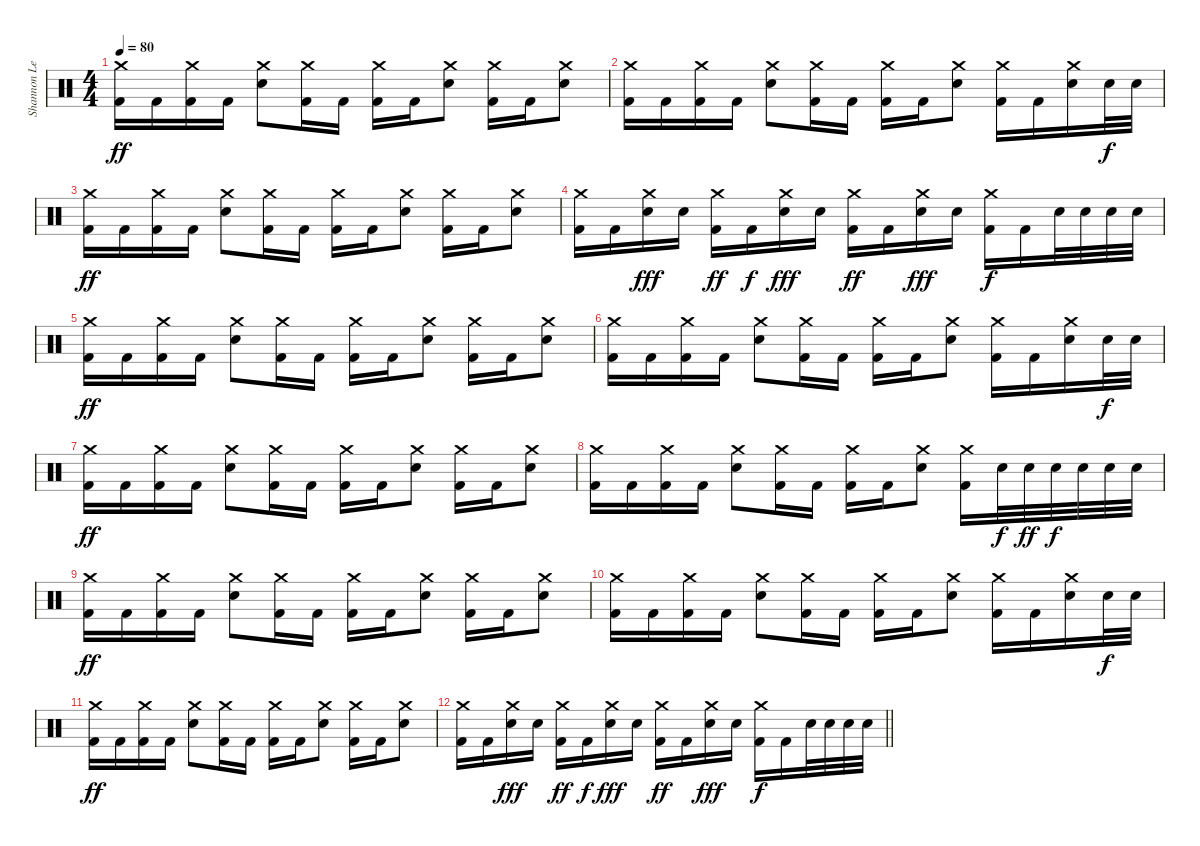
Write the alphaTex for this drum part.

\track ("Shannon Leto - Drums" "Shannon Le") {instrument percussion}
\staff {score}
\articulation defaults
\ts (4 4)
\tempo 80
\clef neutral
\ks c
("Crash medium (hit)" "Kick (hit) 2").16{dy ff} "Kick (hit) 2".16 ("Crash medium (hit)" "Kick (hit) 2").16 "Kick (hit) 2".16 ("Crash medium (hit)" "Electric Snare (hit)").8 ("Crash medium (hit)" "Kick (hit) 2").16 "Kick (hit) 2".16 ("Crash medium (hit)" "Kick (hit) 2").16 "Kick (hit) 2".16 ("Crash medium (hit)" "Electric Snare (hit)").8 ("Crash medium (hit)" "Kick (hit) 2").16 "Kick (hit) 2".16 ("Crash medium (hit)" "Electric Snare (hit)").8 |
("Crash medium (hit)" "Kick (hit) 2").16 "Kick (hit) 2".16 ("Crash medium (hit)" "Kick (hit) 2").16 "Kick (hit) 2".16 ("Crash medium (hit)" "Electric Snare (hit)").8 ("Crash medium (hit)" "Kick (hit) 2").16 "Kick (hit) 2".16 ("Crash medium (hit)" "Kick (hit) 2").16 "Kick (hit) 2".16 ("Crash medium (hit)" "Electric Snare (hit)").8 ("Crash medium (hit)" "Kick (hit) 2").16 "Kick (hit) 2".16 ("Crash medium (hit)" "Electric Snare (hit)").16 "Electric Snare (hit)".32{dy f} "Electric Snare (hit)".32 |
("Crash medium (hit)" "Kick (hit) 2").16{dy ff} "Kick (hit) 2".16 ("Crash medium (hit)" "Kick (hit) 2").16 "Kick (hit) 2".16 ("Crash medium (hit)" "Electric Snare (hit)").8 ("Crash medium (hit)" "Kick (hit) 2").16 "Kick (hit) 2".16 ("Crash medium (hit)" "Kick (hit) 2").16 "Kick (hit) 2".16 ("Crash medium (hit)" "Electric Snare (hit)").8 ("Crash medium (hit)" "Kick (hit) 2").16 "Kick (hit) 2".16 ("Crash medium (hit)" "Electric Snare (hit)").8 |
("Crash medium (hit)" "Kick (hit) 2").16 "Kick (hit) 2".16 ("Crash medium (hit)" "Electric Snare (hit)").16{dy fff} "Electric Snare (hit)".16 ("Crash medium (hit)" "Kick (hit) 2").16{dy ff} "Kick (hit) 2".16{dy f} ("Crash medium (hit)" "Electric Snare (hit)").16{dy fff} "Electric Snare (hit)".16 ("Crash medium (hit)" "Kick (hit) 2").16{dy ff} "Kick (hit) 2".16 ("Crash medium (hit)" "Electric Snare (hit)").16{dy fff} "Electric Snare (hit)".16 ("Crash medium (hit)" "Kick (hit) 2").16{dy f} "Kick (hit) 2".16 "Electric Snare (hit)".32 "Electric Snare (hit)".32 "Electric Snare (hit)".32 "Electric Snare (hit)".32 |
("Crash medium (hit)" "Kick (hit) 2").16{dy ff} "Kick (hit) 2".16 ("Crash medium (hit)" "Kick (hit) 2").16 "Kick (hit) 2".16 ("Crash medium (hit)" "Electric Snare (hit)").8 ("Crash medium (hit)" "Kick (hit) 2").16 "Kick (hit) 2".16 ("Crash medium (hit)" "Kick (hit) 2").16 "Kick (hit) 2".16 ("Crash medium (hit)" "Electric Snare (hit)").8 ("Crash medium (hit)" "Kick (hit) 2").16 "Kick (hit) 2".16 ("Crash medium (hit)" "Electric Snare (hit)").8 |
("Crash medium (hit)" "Kick (hit) 2").16 "Kick (hit) 2".16 ("Crash medium (hit)" "Kick (hit) 2").16 "Kick (hit) 2".16 ("Crash medium (hit)" "Electric Snare (hit)").8 ("Crash medium (hit)" "Kick (hit) 2").16 "Kick (hit) 2".16 ("Crash medium (hit)" "Kick (hit) 2").16 "Kick (hit) 2".16 ("Crash medium (hit)" "Electric Snare (hit)").8 ("Crash medium (hit)" "Kick (hit) 2").16 "Kick (hit) 2".16 ("Crash medium (hit)" "Electric Snare (hit)").16 "Electric Snare (hit)".32{dy f} "Electric Snare (hit)".32 |
("Crash medium (hit)" "Kick (hit) 2").16{dy ff} "Kick (hit) 2".16 ("Crash medium (hit)" "Kick (hit) 2").16 "Kick (hit) 2".16 ("Crash medium (hit)" "Electric Snare (hit)").8 ("Crash medium (hit)" "Kick (hit) 2").16 "Kick (hit) 2".16 ("Crash medium (hit)" "Kick (hit) 2").16 "Kick (hit) 2".16 ("Crash medium (hit)" "Electric Snare (hit)").8 ("Crash medium (hit)" "Kick (hit) 2").16 "Kick (hit) 2".16 ("Crash medium (hit)" "Electric Snare (hit)").8 |
("Crash medium (hit)" "Kick (hit) 2").16 "Kick (hit) 2".16 ("Crash medium (hit)" "Kick (hit) 2").16 "Kick (hit) 2".16 ("Crash medium (hit)" "Electric Snare (hit)").8 ("Crash medium (hit)" "Kick (hit) 2").16 "Kick (hit) 2".16 ("Crash medium (hit)" "Kick (hit) 2").16 "Kick (hit) 2".16 ("Crash medium (hit)" "Electric Snare (hit)").8 ("Crash medium (hit)" "Kick (hit) 2").16 "Electric Snare (hit)".32{dy f} "Electric Snare (hit)".32{dy ff} "Electric Snare (hit)".32{dy f} "Electric Snare (hit)".32 "Electric Snare (hit)".32 "Electric Snare (hit)".32 |
("Crash medium (hit)" "Kick (hit) 2").16{dy ff} "Kick (hit) 2".16 ("Crash medium (hit)" "Kick (hit) 2").16 "Kick (hit) 2".16 ("Crash medium (hit)" "Electric Snare (hit)").8 ("Crash medium (hit)" "Kick (hit) 2").16 "Kick (hit) 2".16 ("Crash medium (hit)" "Kick (hit) 2").16 "Kick (hit) 2".16 ("Crash medium (hit)" "Electric Snare (hit)").8 ("Crash medium (hit)" "Kick (hit) 2").16 "Kick (hit) 2".16 ("Crash medium (hit)" "Electric Snare (hit)").8 |
("Crash medium (hit)" "Kick (hit) 2").16 "Kick (hit) 2".16 ("Crash medium (hit)" "Kick (hit) 2").16 "Kick (hit) 2".16 ("Crash medium (hit)" "Electric Snare (hit)").8 ("Crash medium (hit)" "Kick (hit) 2").16 "Kick (hit) 2".16 ("Crash medium (hit)" "Kick (hit) 2").16 "Kick (hit) 2".16 ("Crash medium (hit)" "Electric Snare (hit)").8 ("Crash medium (hit)" "Kick (hit) 2").16 "Kick (hit) 2".16 ("Crash medium (hit)" "Electric Snare (hit)").16 "Electric Snare (hit)".32{dy f} "Electric Snare (hit)".32 |
("Crash medium (hit)" "Kick (hit) 2").16{dy ff} "Kick (hit) 2".16 ("Crash medium (hit)" "Kick (hit) 2").16 "Kick (hit) 2".16 ("Crash medium (hit)" "Electric Snare (hit)").8 ("Crash medium (hit)" "Kick (hit) 2").16 "Kick (hit) 2".16 ("Crash medium (hit)" "Kick (hit) 2").16 "Kick (hit) 2".16 ("Crash medium (hit)" "Electric Snare (hit)").8 ("Crash medium (hit)" "Kick (hit) 2").16 "Kick (hit) 2".16 ("Crash medium (hit)" "Electric Snare (hit)").8 |
\barLineRight lightlight
("Crash medium (hit)" "Kick (hit) 2").16 "Kick (hit) 2".16 ("Crash medium (hit)" "Electric Snare (hit)").16{dy fff} "Electric Snare (hit)".16 ("Crash medium (hit)" "Kick (hit) 2").16{dy ff} "Kick (hit) 2".16{dy f} ("Crash medium (hit)" "Electric Snare (hit)").16{dy fff} "Electric Snare (hit)".16 ("Crash medium (hit)" "Kick (hit) 2").16{dy ff} "Kick (hit) 2".16 ("Crash medium (hit)" "Electric Snare (hit)").16{dy fff} "Electric Snare (hit)".16 ("Crash medium (hit)" "Kick (hit) 2").16{dy f} "Kick (hit) 2".16 "Electric Snare (hit)".32 "Electric Snare (hit)".32 "Electric Snare (hit)".32 "Electric Snare (hit)".32
